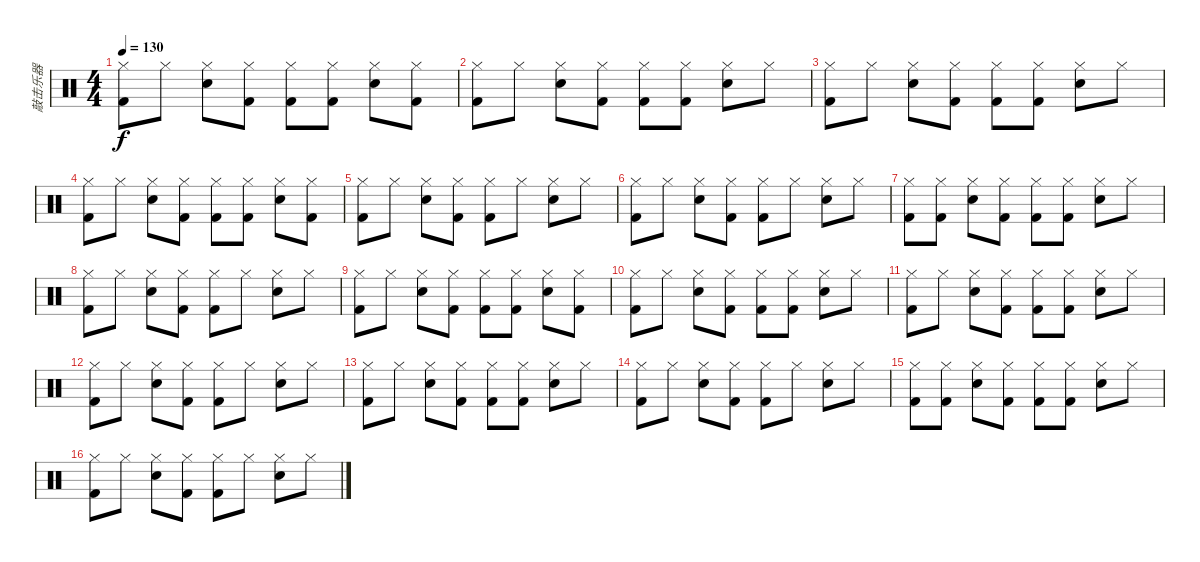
\track ("敲击乐器" "敲击乐器") {instrument percussion}
\staff {score}
\articulation defaults
\ts (4 4)
\tempo 130
\clef neutral
\ks c
("Hi-Hat (closed)" "Kick (hit) 2").8{dy f} "Hi-Hat (closed)".8 ("Hi-Hat (closed)" "Electric Snare (hit)").8 ("Hi-Hat (closed)" "Kick (hit) 2").8 ("Hi-Hat (closed)" "Kick (hit) 2").8 ("Hi-Hat (closed)" "Kick (hit) 2").8 ("Hi-Hat (closed)" "Electric Snare (hit)").8 ("Hi-Hat (closed)" "Kick (hit) 2").8 |
("Hi-Hat (closed)" "Kick (hit) 2").8 "Hi-Hat (closed)".8 ("Hi-Hat (closed)" "Electric Snare (hit)").8 ("Hi-Hat (closed)" "Kick (hit) 2").8 ("Hi-Hat (closed)" "Kick (hit) 2").8 ("Hi-Hat (closed)" "Kick (hit) 2").8 ("Hi-Hat (closed)" "Electric Snare (hit)").8 "Hi-Hat (closed)".8 |
("Hi-Hat (closed)" "Kick (hit) 2").8 "Hi-Hat (closed)".8 ("Hi-Hat (closed)" "Electric Snare (hit)").8 ("Hi-Hat (closed)" "Kick (hit) 2").8 ("Hi-Hat (closed)" "Kick (hit) 2").8 ("Hi-Hat (closed)" "Kick (hit) 2").8 ("Hi-Hat (closed)" "Electric Snare (hit)").8 "Hi-Hat (closed)".8 |
("Hi-Hat (closed)" "Kick (hit) 2").8 "Hi-Hat (closed)".8 ("Hi-Hat (closed)" "Electric Snare (hit)").8 ("Hi-Hat (closed)" "Kick (hit) 2").8 ("Hi-Hat (closed)" "Kick (hit) 2").8 ("Hi-Hat (closed)" "Kick (hit) 2").8 ("Hi-Hat (closed)" "Electric Snare (hit)").8 ("Hi-Hat (closed)" "Kick (hit) 2").8 |
("Hi-Hat (closed)" "Kick (hit) 2").8 "Hi-Hat (closed)".8 ("Hi-Hat (closed)" "Electric Snare (hit)").8 ("Hi-Hat (closed)" "Kick (hit) 2").8 ("Hi-Hat (closed)" "Kick (hit) 2").8 "Hi-Hat (closed)".8 ("Hi-Hat (closed)" "Electric Snare (hit)").8 "Hi-Hat (closed)".8 |
("Hi-Hat (closed)" "Kick (hit) 2").8 "Hi-Hat (closed)".8 ("Hi-Hat (closed)" "Electric Snare (hit)").8 ("Hi-Hat (closed)" "Kick (hit) 2").8 ("Hi-Hat (closed)" "Kick (hit) 2").8 "Hi-Hat (closed)".8 ("Hi-Hat (closed)" "Electric Snare (hit)").8 "Hi-Hat (closed)".8 |
("Hi-Hat (closed)" "Kick (hit) 2").8 ("Hi-Hat (closed)" "Kick (hit) 2").8 ("Hi-Hat (closed)" "Electric Snare (hit)").8 ("Hi-Hat (closed)" "Kick (hit) 2").8 ("Hi-Hat (closed)" "Kick (hit) 2").8 ("Hi-Hat (closed)" "Kick (hit) 2").8 ("Hi-Hat (closed)" "Electric Snare (hit)").8 "Hi-Hat (closed)".8 |
("Hi-Hat (closed)" "Kick (hit) 2").8 "Hi-Hat (closed)".8 ("Hi-Hat (closed)" "Electric Snare (hit)").8 ("Hi-Hat (closed)" "Kick (hit) 2").8 ("Hi-Hat (closed)" "Kick (hit) 2").8 "Hi-Hat (closed)".8 ("Hi-Hat (closed)" "Electric Snare (hit)").8 "Hi-Hat (closed)".8 |
("Hi-Hat (closed)" "Kick (hit) 2").8 "Hi-Hat (closed)".8 ("Hi-Hat (closed)" "Electric Snare (hit)").8 ("Hi-Hat (closed)" "Kick (hit) 2").8 ("Hi-Hat (closed)" "Kick (hit) 2").8 ("Hi-Hat (closed)" "Kick (hit) 2").8 ("Hi-Hat (closed)" "Electric Snare (hit)").8 ("Hi-Hat (closed)" "Kick (hit) 2").8 |
("Hi-Hat (closed)" "Kick (hit) 2").8 "Hi-Hat (closed)".8 ("Hi-Hat (closed)" "Electric Snare (hit)").8 ("Hi-Hat (closed)" "Kick (hit) 2").8 ("Hi-Hat (closed)" "Kick (hit) 2").8 ("Hi-Hat (closed)" "Kick (hit) 2").8 ("Hi-Hat (closed)" "Electric Snare (hit)").8 "Hi-Hat (closed)".8 |
("Hi-Hat (closed)" "Kick (hit) 2").8 "Hi-Hat (closed)".8 ("Hi-Hat (closed)" "Electric Snare (hit)").8 ("Hi-Hat (closed)" "Kick (hit) 2").8 ("Hi-Hat (closed)" "Kick (hit) 2").8 ("Hi-Hat (closed)" "Kick (hit) 2").8 ("Hi-Hat (closed)" "Electric Snare (hit)").8 "Hi-Hat (closed)".8 |
("Hi-Hat (closed)" "Kick (hit) 2").8 "Hi-Hat (closed)".8 ("Hi-Hat (closed)" "Electric Snare (hit)").8 ("Hi-Hat (closed)" "Kick (hit) 2").8 ("Hi-Hat (closed)" "Kick (hit) 2").8 "Hi-Hat (closed)".8 ("Hi-Hat (closed)" "Electric Snare (hit)").8 "Hi-Hat (closed)".8 |
("Hi-Hat (closed)" "Kick (hit) 2").8 "Hi-Hat (closed)".8 ("Hi-Hat (closed)" "Electric Snare (hit)").8 ("Hi-Hat (closed)" "Kick (hit) 2").8 ("Hi-Hat (closed)" "Kick (hit) 2").8 ("Hi-Hat (closed)" "Kick (hit) 2").8 ("Hi-Hat (closed)" "Electric Snare (hit)").8 "Hi-Hat (closed)".8 |
("Hi-Hat (closed)" "Kick (hit) 2").8 "Hi-Hat (closed)".8 ("Hi-Hat (closed)" "Electric Snare (hit)").8 ("Hi-Hat (closed)" "Kick (hit) 2").8 ("Hi-Hat (closed)" "Kick (hit) 2").8 "Hi-Hat (closed)".8 ("Hi-Hat (closed)" "Electric Snare (hit)").8 "Hi-Hat (closed)".8 |
("Hi-Hat (closed)" "Kick (hit) 2").8 ("Hi-Hat (closed)" "Kick (hit) 2").8 ("Hi-Hat (closed)" "Electric Snare (hit)").8 ("Hi-Hat (closed)" "Kick (hit) 2").8 ("Hi-Hat (closed)" "Kick (hit) 2").8 ("Hi-Hat (closed)" "Kick (hit) 2").8 ("Hi-Hat (closed)" "Electric Snare (hit)").8 "Hi-Hat (closed)".8 |
("Hi-Hat (closed)" "Kick (hit) 2").8 "Hi-Hat (closed)".8 ("Hi-Hat (closed)" "Electric Snare (hit)").8 ("Hi-Hat (closed)" "Kick (hit) 2").8 ("Hi-Hat (closed)" "Kick (hit) 2").8 "Hi-Hat (closed)".8 ("Hi-Hat (closed)" "Electric Snare (hit)").8 "Hi-Hat (closed)".8
